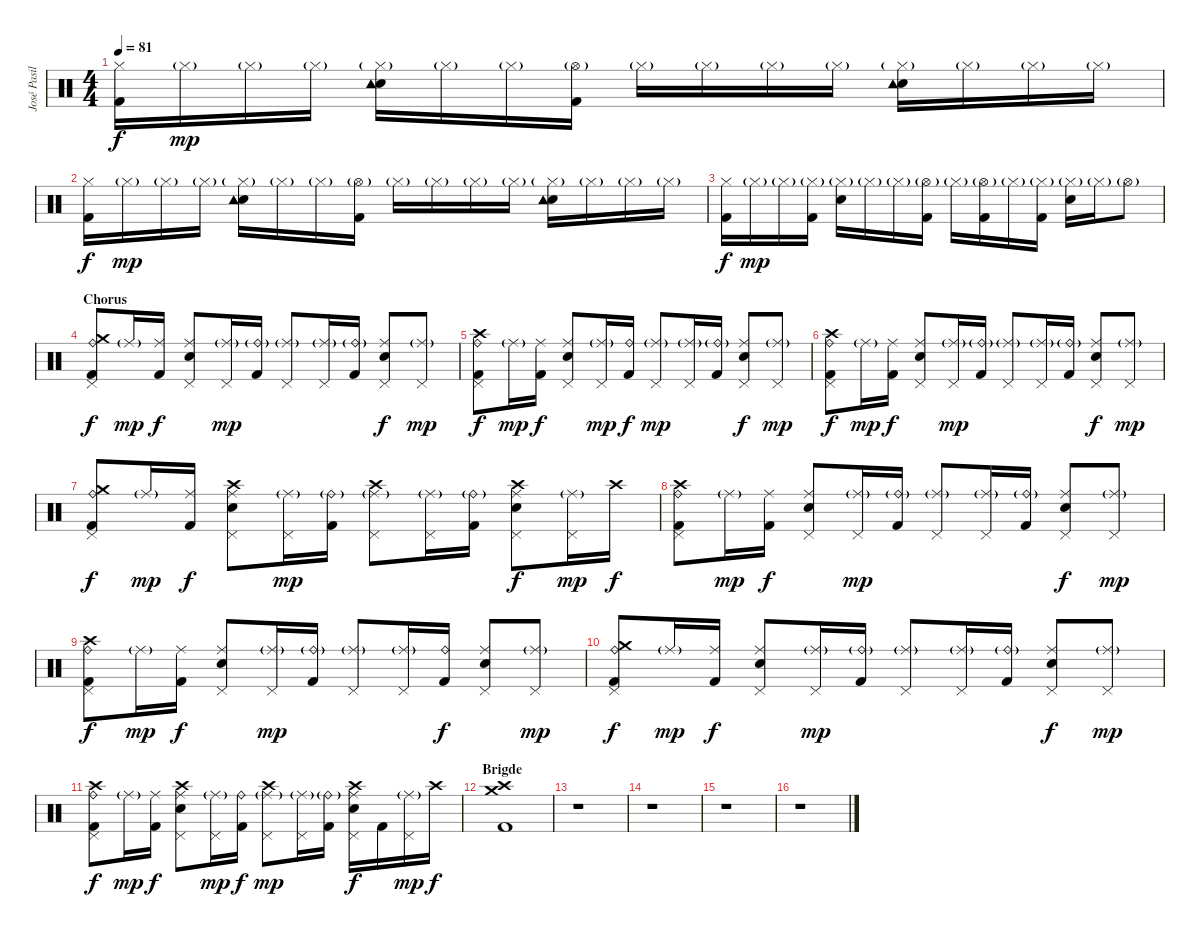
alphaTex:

\track ("José Pasillas [Drums]" "José Pasil") {instrument percussion}
\staff {score}
\articulation defaults
\ts (4 4)
\tempo 81
\clef neutral
\ks c
("Kick (hit) 2" "Hi-Hat (closed)").16{dy f} "Hi-Hat (closed)"{g}.16{dy mp} "Hi-Hat (closed)"{g}.16 "Hi-Hat (closed)"{g}.16 ("Electric Snare (hit)" "Tambourine (hit)" "Hi-Hat (closed)"{g}).16 "Hi-Hat (closed)"{g}.16 "Hi-Hat (closed)"{g}.16 ("Kick (hit) 2" "Hi-Hat (open)"{g}).16 "Hi-Hat (closed)"{g}.16 "Hi-Hat (closed)"{g}.16 "Hi-Hat (closed)"{g}.16 "Hi-Hat (closed)"{g}.16 ("Electric Snare (hit)" "Tambourine (hit)" "Hi-Hat (closed)"{g}).16 "Hi-Hat (closed)"{g}.16 "Hi-Hat (closed)"{g}.16 "Hi-Hat (closed)"{g}.16 |
("Kick (hit) 2" "Hi-Hat (closed)").16{dy f} "Hi-Hat (closed)"{g}.16{dy mp} "Hi-Hat (closed)"{g}.16 "Hi-Hat (closed)"{g}.16 ("Electric Snare (hit)" "Tambourine (hit)" "Hi-Hat (closed)"{g}).16 "Hi-Hat (closed)"{g}.16 "Hi-Hat (closed)"{g}.16 ("Kick (hit) 2" "Hi-Hat (open)"{g}).16 "Hi-Hat (closed)"{g}.16 "Hi-Hat (closed)"{g}.16 "Hi-Hat (closed)"{g}.16 "Hi-Hat (closed)"{g}.16 ("Electric Snare (hit)" "Tambourine (hit)" "Hi-Hat (closed)"{g}).16 "Hi-Hat (closed)"{g}.16 "Hi-Hat (closed)"{g}.16 "Hi-Hat (closed)"{g}.16 |
("Kick (hit) 2" "Hi-Hat (closed)").16{dy f} "Hi-Hat (closed)"{g}.16{dy mp} "Hi-Hat (closed)"{g}.16 ("Kick (hit) 2" "Hi-Hat (closed)"{g}).16 ("Electric Snare (hit)" "Hi-Hat (closed)"{g}).16 "Hi-Hat (closed)"{g}.16 "Hi-Hat (closed)"{g}.16 ("Kick (hit) 2" "Hi-Hat (open)"{g}).16 "Hi-Hat (closed)"{g}.16 ("Kick (hit) 2" "Hi-Hat (open)"{g}).16 "Hi-Hat (closed)"{g}.16 ("Kick (hit) 2" "Hi-Hat (closed)"{g}).16 ("Electric Snare (hit)" "Hi-Hat (closed)"{g}).16 "Hi-Hat (closed)"{g}.16 "Hi-Hat (open)"{g}.8 |
\section ("" "Chorus")
("Kick (hit) 2" "Crash medium (hit)" "Ride (bell)" "Pedal Hi-Hat (hit)").8{dy f} "Ride (middle)"{g}.16{dy mp} ("Kick (hit) 2" "Ride (middle)").16{dy f} ("Electric Snare (hit)" "Ride (middle)" "Pedal Hi-Hat (hit)").8 ("Ride (middle)"{g} "Pedal Hi-Hat (hit)").16{dy mp} ("Kick (hit) 2" "Ride (bell)"{g}).16 ("Ride (middle)"{g} "Pedal Hi-Hat (hit)").8 ("Ride (middle)"{g} "Pedal Hi-Hat (hit)").16 ("Kick (hit) 2" "Ride (bell)"{g}).16 ("Electric Snare (hit)" "Ride (middle)" "Pedal Hi-Hat (hit)").8{dy f} ("Ride (middle)"{g} "Pedal Hi-Hat (hit)").8{dy mp} |
("Kick (hit) 2" "Crash high (hit)" "Ride (bell)" "Pedal Hi-Hat (hit)").8{dy f} "Ride (middle)"{g}.16{dy mp} ("Kick (hit) 2" "Ride (middle)").16{dy f} ("Electric Snare (hit)" "Ride (middle)" "Pedal Hi-Hat (hit)").8 ("Ride (middle)"{g} "Pedal Hi-Hat (hit)").16{dy mp} ("Kick (hit) 2" "Ride (bell)").16{dy f} ("Ride (middle)"{g} "Pedal Hi-Hat (hit)").8{dy mp} ("Ride (middle)"{g} "Pedal Hi-Hat (hit)").16 ("Kick (hit) 2" "Ride (bell)"{g}).16 ("Electric Snare (hit)" "Ride (middle)" "Pedal Hi-Hat (hit)").8{dy f} ("Ride (middle)"{g} "Pedal Hi-Hat (hit)").8{dy mp} |
("Kick (hit) 2" "Crash high (hit)" "Ride (bell)" "Pedal Hi-Hat (hit)").8{dy f} "Ride (middle)"{g}.16{dy mp} ("Kick (hit) 2" "Ride (middle)").16{dy f} ("Electric Snare (hit)" "Ride (middle)" "Pedal Hi-Hat (hit)").8 ("Ride (middle)"{g} "Pedal Hi-Hat (hit)").16{dy mp} ("Kick (hit) 2" "Ride (bell)"{g}).16 ("Ride (middle)"{g} "Pedal Hi-Hat (hit)").8 ("Ride (middle)"{g} "Pedal Hi-Hat (hit)").16 ("Kick (hit) 2" "Ride (bell)"{g}).16 ("Electric Snare (hit)" "Ride (middle)" "Pedal Hi-Hat (hit)").8{dy f} ("Ride (middle)"{g} "Pedal Hi-Hat (hit)").8{dy mp} |
("Kick (hit) 2" "Crash medium (hit)" "Ride (bell)" "Pedal Hi-Hat (hit)").8{dy f} "Ride (middle)"{g}.16{dy mp} ("Kick (hit) 2" "Ride (middle)").16{dy f} ("Electric Snare (hit)" "Crash high (hit)" "Ride (middle)" "Pedal Hi-Hat (hit)").8 ("Ride (middle)"{g} "Pedal Hi-Hat (hit)").16{dy mp} ("Kick (hit) 2" "Ride (bell)"{g}).16 ("Crash high (hit)" "Ride (middle)"{g} "Pedal Hi-Hat (hit)").8 ("Ride (middle)"{g} "Pedal Hi-Hat (hit)").16 ("Kick (hit) 2" "Ride (bell)"{g}).16 ("Electric Snare (hit)" "Crash high (hit)" "Ride (middle)" "Pedal Hi-Hat (hit)").8{dy f} ("Ride (middle)"{g} "Pedal Hi-Hat (hit)").16{dy mp} "Crash high (hit)".16{dy f} |
("Kick (hit) 2" "Crash high (hit)" "Ride (bell)" "Pedal Hi-Hat (hit)").8 "Ride (middle)"{g}.16{dy mp} ("Kick (hit) 2" "Ride (middle)").16{dy f} ("Electric Snare (hit)" "Ride (middle)" "Pedal Hi-Hat (hit)").8 ("Ride (middle)"{g} "Pedal Hi-Hat (hit)").16{dy mp} ("Kick (hit) 2" "Ride (bell)"{g}).16 ("Ride (middle)"{g} "Pedal Hi-Hat (hit)").8 ("Ride (middle)"{g} "Pedal Hi-Hat (hit)").16 ("Kick (hit) 2" "Ride (bell)"{g}).16 ("Electric Snare (hit)" "Ride (middle)" "Pedal Hi-Hat (hit)").8{dy f} ("Ride (middle)"{g} "Pedal Hi-Hat (hit)").8{dy mp} |
("Kick (hit) 2" "Crash high (hit)" "Ride (bell)" "Pedal Hi-Hat (hit)").8{dy f} "Ride (middle)"{g}.16{dy mp} ("Kick (hit) 2" "Ride (middle)").16{dy f} ("Electric Snare (hit)" "Ride (middle)" "Pedal Hi-Hat (hit)").8 ("Ride (middle)"{g} "Pedal Hi-Hat (hit)").16{dy mp} ("Kick (hit) 2" "Ride (bell)"{g}).16 ("Ride (middle)"{g} "Pedal Hi-Hat (hit)").8 ("Ride (middle)"{g} "Pedal Hi-Hat (hit)").16 ("Kick (hit) 2" "Ride (bell)").16{dy f} ("Electric Snare (hit)" "Ride (middle)" "Pedal Hi-Hat (hit)").8 ("Ride (middle)"{g} "Pedal Hi-Hat (hit)").8{dy mp} |
("Kick (hit) 2" "Crash medium (hit)" "Ride (bell)" "Pedal Hi-Hat (hit)").8{dy f} "Ride (middle)"{g}.16{dy mp} ("Kick (hit) 2" "Ride (middle)").16{dy f} ("Electric Snare (hit)" "Ride (middle)" "Pedal Hi-Hat (hit)").8 ("Ride (middle)"{g} "Pedal Hi-Hat (hit)").16{dy mp} ("Kick (hit) 2" "Ride (bell)"{g}).16 ("Ride (middle)"{g} "Pedal Hi-Hat (hit)").8 ("Ride (middle)"{g} "Pedal Hi-Hat (hit)").16 ("Kick (hit) 2" "Ride (bell)"{g}).16 ("Electric Snare (hit)" "Ride (middle)" "Pedal Hi-Hat (hit)").8{dy f} ("Ride (middle)"{g} "Pedal Hi-Hat (hit)").8{dy mp} |
("Kick (hit) 2" "Crash high (hit)" "Ride (bell)" "Pedal Hi-Hat (hit)").8{dy f} "Ride (middle)"{g}.16{dy mp} ("Kick (hit) 2" "Ride (middle)").16{dy f} ("Electric Snare (hit)" "Crash high (hit)" "Ride (middle)" "Pedal Hi-Hat (hit)").8 ("Ride (middle)"{g} "Pedal Hi-Hat (hit)").16{dy mp} ("Kick (hit) 2" "Ride (bell)").16{dy f} ("Crash high (hit)" "Ride (middle)"{g} "Pedal Hi-Hat (hit)").8{dy mp} ("Ride (middle)"{g} "Pedal Hi-Hat (hit)").16 ("Kick (hit) 2" "Ride (bell)"{g}).16 ("Electric Snare (hit)" "Crash high (hit)" "Ride (middle)" "Pedal Hi-Hat (hit)").16{dy f} "Kick (hit) 2".16 ("Ride (middle)"{g} "Pedal Hi-Hat (hit)").16{dy mp} "Crash high (hit)".16{dy f} |
\section ("" "Brigde")
("Kick (hit) 2" "Crash medium (hit)" "Crash high (hit)").1 |
r.1 |
r.1 |
r.1 |
r.1
